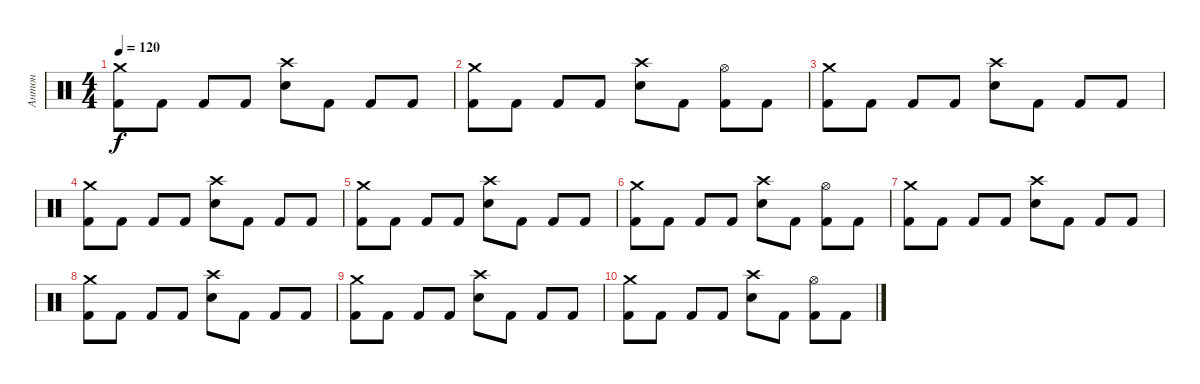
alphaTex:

\track ("Антон" "Антон") {instrument percussion}
\staff {score}
\articulation defaults
\ts (4 4)
\tempo 120
\clef neutral
\ks c
("Crash medium (hit)" "Kick (hit) 2").8{dy f} "Kick (hit) 2".8 "Kick (hit) 2".8 "Kick (hit) 2".8 ("Crash high (hit)" "Electric Snare (hit)").8 "Kick (hit) 2".8 "Kick (hit) 2".8 "Kick (hit) 2".8 |
("Crash medium (hit)" "Kick (hit) 2").8 "Kick (hit) 2".8 "Kick (hit) 2".8 "Kick (hit) 2".8 ("Crash high (hit)" "Electric Snare (hit)").8 "Kick (hit) 2".8 ("Hi-Hat (open)" "Kick (hit) 2").8 "Kick (hit) 2".8 |
("Crash medium (hit)" "Kick (hit) 2").8 "Kick (hit) 2".8 "Kick (hit) 2".8 "Kick (hit) 2".8 ("Crash high (hit)" "Electric Snare (hit)").8 "Kick (hit) 2".8 "Kick (hit) 2".8 "Kick (hit) 2".8 |
("Crash medium (hit)" "Kick (hit) 2").8 "Kick (hit) 2".8 "Kick (hit) 2".8 "Kick (hit) 2".8 ("Crash high (hit)" "Electric Snare (hit)").8 "Kick (hit) 2".8 "Kick (hit) 2".8 "Kick (hit) 2".8 |
("Crash medium (hit)" "Kick (hit) 2").8 "Kick (hit) 2".8 "Kick (hit) 2".8 "Kick (hit) 2".8 ("Crash high (hit)" "Electric Snare (hit)").8 "Kick (hit) 2".8 "Kick (hit) 2".8 "Kick (hit) 2".8 |
("Crash medium (hit)" "Kick (hit) 2").8 "Kick (hit) 2".8 "Kick (hit) 2".8 "Kick (hit) 2".8 ("Crash high (hit)" "Electric Snare (hit)").8 "Kick (hit) 2".8 ("Hi-Hat (open)" "Kick (hit) 2").8 "Kick (hit) 2".8 |
("Crash medium (hit)" "Kick (hit) 2").8 "Kick (hit) 2".8 "Kick (hit) 2".8 "Kick (hit) 2".8 ("Crash high (hit)" "Electric Snare (hit)").8 "Kick (hit) 2".8 "Kick (hit) 2".8 "Kick (hit) 2".8 |
("Crash medium (hit)" "Kick (hit) 2").8 "Kick (hit) 2".8 "Kick (hit) 2".8 "Kick (hit) 2".8 ("Crash high (hit)" "Electric Snare (hit)").8 "Kick (hit) 2".8 "Kick (hit) 2".8 "Kick (hit) 2".8 |
("Crash medium (hit)" "Kick (hit) 2").8 "Kick (hit) 2".8 "Kick (hit) 2".8 "Kick (hit) 2".8 ("Crash high (hit)" "Electric Snare (hit)").8 "Kick (hit) 2".8 "Kick (hit) 2".8 "Kick (hit) 2".8 |
("Crash medium (hit)" "Kick (hit) 2").8 "Kick (hit) 2".8 "Kick (hit) 2".8 "Kick (hit) 2".8 ("Crash high (hit)" "Electric Snare (hit)").8 "Kick (hit) 2".8 ("Hi-Hat (open)" "Kick (hit) 2").8 "Kick (hit) 2".8
